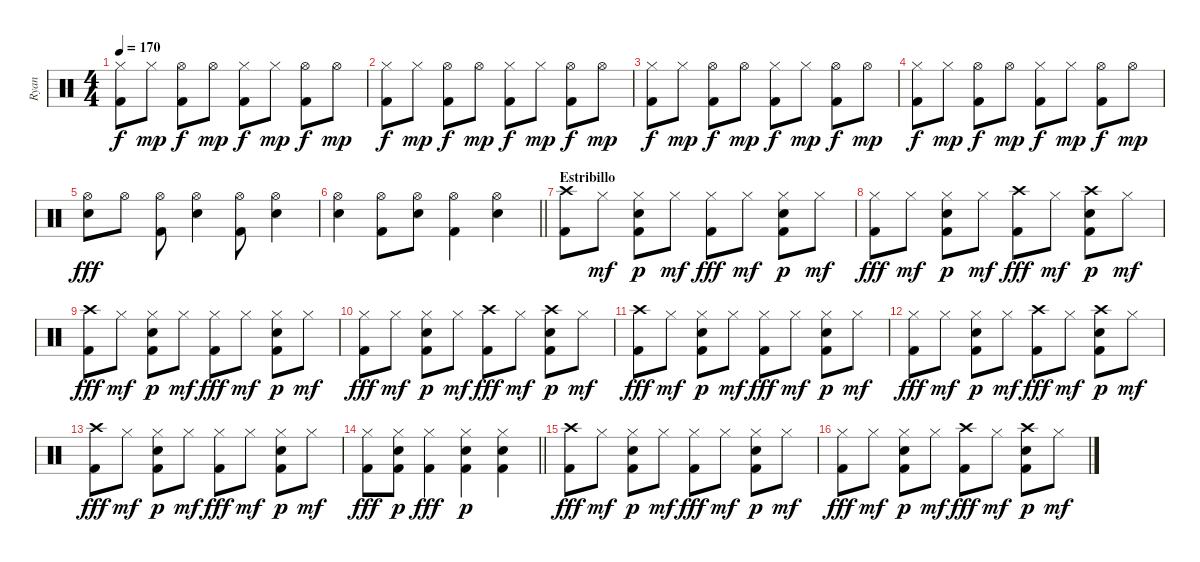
\track ("Ryan" "Ryan") {instrument percussion}
\staff {score}
\articulation defaults
\ts (4 4)
\tempo 170
\clef neutral
\ks c
("Hi-Hat (closed)" "Kick (hit) 2").8{dy f} "Hi-Hat (closed)".8{dy mp} ("Hi-Hat (open)" "Kick (hit) 2").8{dy f} "Hi-Hat (open)".8{dy mp} ("Hi-Hat (closed)" "Kick (hit) 2").8{dy f} "Hi-Hat (closed)".8{dy mp} ("Hi-Hat (open)" "Kick (hit) 2").8{dy f} "Hi-Hat (open)".8{dy mp} |
("Hi-Hat (closed)" "Kick (hit) 2").8{dy f} "Hi-Hat (closed)".8{dy mp} ("Hi-Hat (open)" "Kick (hit) 2").8{dy f} "Hi-Hat (open)".8{dy mp} ("Hi-Hat (closed)" "Kick (hit) 2").8{dy f} "Hi-Hat (closed)".8{dy mp} ("Hi-Hat (open)" "Kick (hit) 2").8{dy f} "Hi-Hat (open)".8{dy mp} |
("Hi-Hat (closed)" "Kick (hit) 2").8{dy f} "Hi-Hat (closed)".8{dy mp} ("Hi-Hat (open)" "Kick (hit) 2").8{dy f} "Hi-Hat (open)".8{dy mp} ("Hi-Hat (closed)" "Kick (hit) 2").8{dy f} "Hi-Hat (closed)".8{dy mp} ("Hi-Hat (open)" "Kick (hit) 2").8{dy f} "Hi-Hat (open)".8{dy mp} |
("Hi-Hat (closed)" "Kick (hit) 2").8{dy f} "Hi-Hat (closed)".8{dy mp} ("Hi-Hat (open)" "Kick (hit) 2").8{dy f} "Hi-Hat (open)".8{dy mp} ("Hi-Hat (closed)" "Kick (hit) 2").8{dy f} "Hi-Hat (closed)".8{dy mp} ("Hi-Hat (open)" "Kick (hit) 2").8{dy f} "Hi-Hat (open)".8{dy mp} |
("Hi-Hat (open)" "Snare (hit) 2").8{dy fff} "Hi-Hat (open)".8 ("Hi-Hat (open)" "Kick (hit) 2").8 ("Hi-Hat (open)" "Snare (hit) 2").4 ("Hi-Hat (open)" "Kick (hit) 2").8 ("Hi-Hat (open)" "Snare (hit) 2").4 |
\barLineRight lightlight
("Hi-Hat (open)" "Snare (hit) 2").4 ("Kick (hit) 2" "Hi-Hat (open)").8 ("Snare (hit) 2" "Hi-Hat (open)").8 ("Kick (hit) 2" "Hi-Hat (open)").4 ("Hi-Hat (open)" "Snare (hit) 2").4 |
\section ("" "Estribillo")
("Kick (hit) 2" "Crash high (hit)").8 "Hi-Hat (closed)".8{dy mf} ("Snare (hit) 2" "Hi-Hat (closed)" "Kick (hit) 2").8{dy p} "Hi-Hat (closed)".8{dy mf} ("Kick (hit) 2" "Hi-Hat (closed)").8{dy fff} "Hi-Hat (closed)".8{dy mf} ("Snare (hit) 2" "Hi-Hat (closed)" "Kick (hit) 2").8{dy p} "Hi-Hat (closed)".8{dy mf} |
("Kick (hit) 2" "Hi-Hat (closed)").8{dy fff} "Hi-Hat (closed)".8{dy mf} ("Snare (hit) 2" "Hi-Hat (closed)" "Kick (hit) 2").8{dy p} "Hi-Hat (closed)".8{dy mf} ("Kick (hit) 2" "Crash high (hit)").8{dy fff} "Hi-Hat (closed)".8{dy mf} ("Snare (hit) 2" "Crash high (hit)" "Kick (hit) 2").8{dy p} "Hi-Hat (closed)".8{dy mf} |
("Kick (hit) 2" "Crash high (hit)").8{dy fff} "Hi-Hat (closed)".8{dy mf} ("Snare (hit) 2" "Hi-Hat (closed)" "Kick (hit) 2").8{dy p} "Hi-Hat (closed)".8{dy mf} ("Kick (hit) 2" "Hi-Hat (closed)").8{dy fff} "Hi-Hat (closed)".8{dy mf} ("Snare (hit) 2" "Hi-Hat (closed)" "Kick (hit) 2").8{dy p} "Hi-Hat (closed)".8{dy mf} |
("Kick (hit) 2" "Hi-Hat (closed)").8{dy fff} "Hi-Hat (closed)".8{dy mf} ("Snare (hit) 2" "Hi-Hat (closed)" "Kick (hit) 2").8{dy p} "Hi-Hat (closed)".8{dy mf} ("Kick (hit) 2" "Crash high (hit)").8{dy fff} "Hi-Hat (closed)".8{dy mf} ("Snare (hit) 2" "Crash high (hit)" "Kick (hit) 2").8{dy p} "Hi-Hat (closed)".8{dy mf} |
("Kick (hit) 2" "Crash high (hit)").8{dy fff} "Hi-Hat (closed)".8{dy mf} ("Snare (hit) 2" "Hi-Hat (closed)" "Kick (hit) 2").8{dy p} "Hi-Hat (closed)".8{dy mf} ("Kick (hit) 2" "Hi-Hat (closed)").8{dy fff} "Hi-Hat (closed)".8{dy mf} ("Snare (hit) 2" "Hi-Hat (closed)" "Kick (hit) 2").8{dy p} "Hi-Hat (closed)".8{dy mf} |
("Kick (hit) 2" "Hi-Hat (closed)").8{dy fff} "Hi-Hat (closed)".8{dy mf} ("Snare (hit) 2" "Hi-Hat (closed)" "Kick (hit) 2").8{dy p} "Hi-Hat (closed)".8{dy mf} ("Kick (hit) 2" "Crash high (hit)").8{dy fff} "Hi-Hat (closed)".8{dy mf} ("Snare (hit) 2" "Crash high (hit)" "Kick (hit) 2").8{dy p} "Hi-Hat (closed)".8{dy mf} |
("Kick (hit) 2" "Crash high (hit)").8{dy fff} "Hi-Hat (closed)".8{dy mf} ("Snare (hit) 2" "Hi-Hat (closed)" "Kick (hit) 2").8{dy p} "Hi-Hat (closed)".8{dy mf} ("Kick (hit) 2" "Hi-Hat (closed)").8{dy fff} "Hi-Hat (closed)".8{dy mf} ("Snare (hit) 2" "Hi-Hat (closed)" "Kick (hit) 2").8{dy p} "Hi-Hat (closed)".8{dy mf} |
\barLineRight lightlight
("Kick (hit) 2" "Hi-Hat (closed)").8{dy fff} ("Snare (hit) 2" "Hi-Hat (closed)" "Kick (hit) 2").8{dy p} ("Kick (hit) 2" "Hi-Hat (closed)").4{dy fff} ("Snare (hit) 2" "Hi-Hat (closed)" "Kick (hit) 2").4{dy p} ("Snare (hit) 2" "Hi-Hat (closed)" "Kick (hit) 2").4 |
("Kick (hit) 2" "Crash high (hit)").8{dy fff} "Hi-Hat (closed)".8{dy mf} ("Snare (hit) 2" "Hi-Hat (closed)" "Kick (hit) 2").8{dy p} "Hi-Hat (closed)".8{dy mf} ("Kick (hit) 2" "Hi-Hat (closed)").8{dy fff} "Hi-Hat (closed)".8{dy mf} ("Snare (hit) 2" "Hi-Hat (closed)" "Kick (hit) 2").8{dy p} "Hi-Hat (closed)".8{dy mf} |
("Kick (hit) 2" "Hi-Hat (closed)").8{dy fff} "Hi-Hat (closed)".8{dy mf} ("Snare (hit) 2" "Hi-Hat (closed)" "Kick (hit) 2").8{dy p} "Hi-Hat (closed)".8{dy mf} ("Kick (hit) 2" "Crash high (hit)").8{dy fff} "Hi-Hat (closed)".8{dy mf} ("Snare (hit) 2" "Crash high (hit)" "Kick (hit) 2").8{dy p} "Hi-Hat (closed)".8{dy mf}
